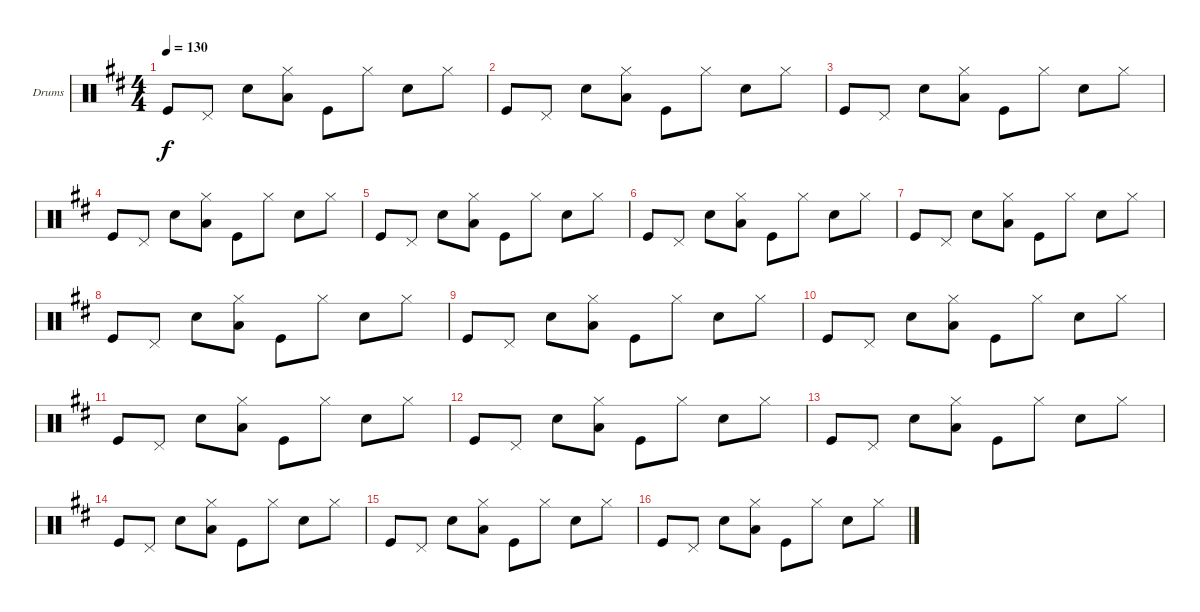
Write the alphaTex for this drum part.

\defaultSystemsLayout 4
\bracketExtendMode groupsimilarinstruments
\firstSystemTrackNameOrientation horizontal
\otherSystemsTrackNameOrientation horizontal
\track ("Drumkit" "Drums") {instrument percussion}
\staff {score}
\articulation defaults
\ts (4 4)
\tempo 130
\clef neutral
\scale
0.333333
\ks d "Kick (hit)".8{dy f} "Pedal Hi-Hat (hit)".8 "Snare (hit) 2".8
("Hi-Hat (closed)" "Low Tom (hit)").8 "Kick (hit)".8 "Hi-Hat (closed)".8 "Snare (hit) 2".8 "Hi-Hat (closed)".8 |
\scale
0.333333 "Kick (hit)".8 "Pedal Hi-Hat (hit)".8 "Snare (hit) 2".8 ("Hi-Hat (closed)" "Low Tom (hit)").8 "Kick (hit)".8 "Hi-Hat (closed)".8 "Snare (hit) 2".8 "Hi-Hat (closed)".8 |
\scale
0.333333 "Kick (hit)".8 "Pedal Hi-Hat (hit)".8 "Snare (hit) 2".8 ("Hi-Hat (closed)" "Low Tom (hit)").8 "Kick (hit)".8 "Hi-Hat (closed)".8 "Snare (hit) 2".8 "Hi-Hat (closed)".8 |
\scale
0.333333 "Kick (hit)".8 "Pedal Hi-Hat (hit)".8 "Snare (hit) 2".8 ("Hi-Hat (closed)" "Low Tom (hit)").8 "Kick (hit)".8 "Hi-Hat (closed)".8 "Snare (hit) 2".8 "Hi-Hat (closed)".8 |
\scale
0.333333 "Kick (hit)".8 "Pedal Hi-Hat (hit)".8 "Snare (hit) 2".8 ("Hi-Hat (closed)" "Low Tom (hit)").8 "Kick (hit)".8 "Hi-Hat (closed)".8 "Snare (hit) 2".8 "Hi-Hat (closed)".8 |
\scale
0.333333 "Kick (hit)".8 "Pedal Hi-Hat (hit)".8 "Snare (hit) 2".8 ("Hi-Hat (closed)" "Low Tom (hit)").8 "Kick (hit)".8 "Hi-Hat (closed)".8 "Snare (hit) 2".8 "Hi-Hat (closed)".8 |
\scale
0.333333 "Kick (hit)".8 "Pedal Hi-Hat (hit)".8 "Snare (hit) 2".8 ("Hi-Hat (closed)" "Low Tom (hit)").8 "Kick (hit)".8 "Hi-Hat (closed)".8 "Snare (hit) 2".8 "Hi-Hat (closed)".8 |
\scale
0.333333 "Kick (hit)".8 "Pedal Hi-Hat (hit)".8 "Snare (hit) 2".8 ("Hi-Hat (closed)" "Low Tom (hit)").8 "Kick (hit)".8 "Hi-Hat (closed)".8 "Snare (hit) 2".8 "Hi-Hat (closed)".8 |
\scale
0.333333 "Kick (hit)".8 "Pedal Hi-Hat (hit)".8 "Snare (hit) 2".8 ("Hi-Hat (closed)" "Low Tom (hit)").8 "Kick (hit)".8 "Hi-Hat (closed)".8 "Snare (hit) 2".8 "Hi-Hat (closed)".8 |
\scale
0.333333 "Kick (hit)".8 "Pedal Hi-Hat (hit)".8 "Snare (hit) 2".8 ("Hi-Hat (closed)" "Low Tom (hit)").8 "Kick (hit)".8 "Hi-Hat (closed)".8 "Snare (hit) 2".8 "Hi-Hat (closed)".8 |
\scale
0.333333 "Kick (hit)".8 "Pedal Hi-Hat (hit)".8 "Snare (hit) 2".8 ("Hi-Hat (closed)" "Low Tom (hit)").8 "Kick (hit)".8 "Hi-Hat (closed)".8 "Snare (hit) 2".8 "Hi-Hat (closed)".8 |
\scale
0.333333 "Kick (hit)".8 "Pedal Hi-Hat (hit)".8 "Snare (hit) 2".8 ("Hi-Hat (closed)" "Low Tom (hit)").8 "Kick (hit)".8 "Hi-Hat (closed)".8 "Snare (hit) 2".8 "Hi-Hat (closed)".8 |
\scale
0.333333 "Kick (hit)".8 "Pedal Hi-Hat (hit)".8 "Snare (hit) 2".8 ("Hi-Hat (closed)" "Low Tom (hit)").8 "Kick (hit)".8 "Hi-Hat (closed)".8 "Snare (hit) 2".8 "Hi-Hat (closed)".8 |
\scale
0.333333 "Kick (hit)".8 "Pedal Hi-Hat (hit)".8 "Snare (hit) 2".8 ("Hi-Hat (closed)" "Low Tom (hit)").8 "Kick (hit)".8 "Hi-Hat (closed)".8 "Snare (hit) 2".8 "Hi-Hat (closed)".8 |
\scale
0.333333 "Kick (hit)".8 "Pedal Hi-Hat (hit)".8 "Snare (hit) 2".8 ("Hi-Hat (closed)" "Low Tom (hit)").8 "Kick (hit)".8 "Hi-Hat (closed)".8 "Snare (hit) 2".8 "Hi-Hat (closed)".8 |
\scale
0.333333 "Kick (hit)".8 "Pedal Hi-Hat (hit)".8 "Snare (hit) 2".8 ("Hi-Hat (closed)" "Low Tom (hit)").8 "Kick (hit)".8 "Hi-Hat (closed)".8 "Snare (hit) 2".8 "Hi-Hat (closed)".8
